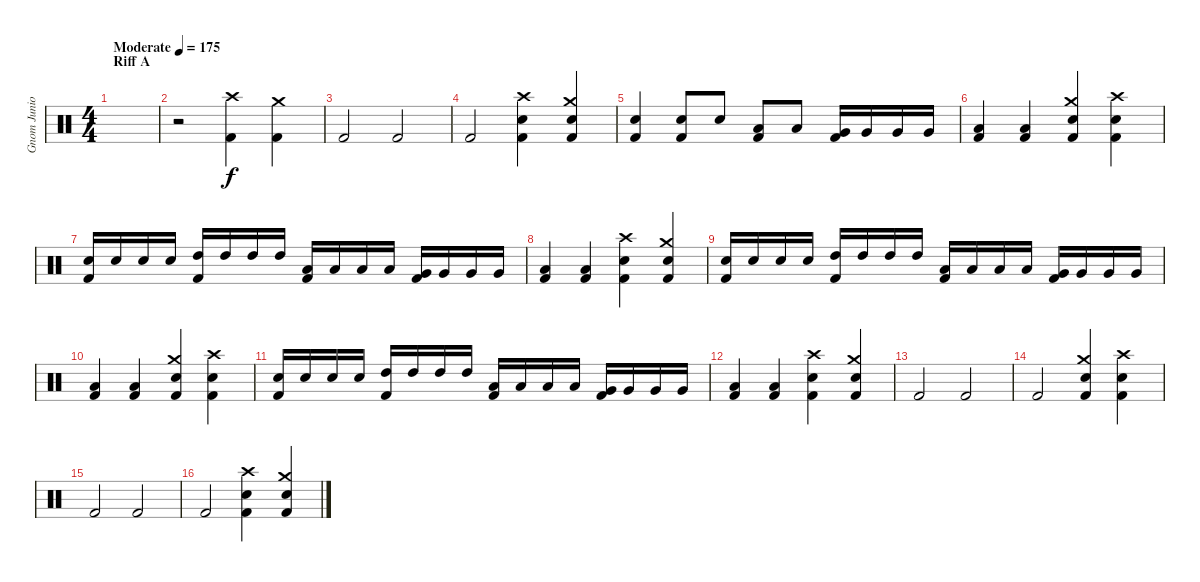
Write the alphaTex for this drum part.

\track ("Gnom Junior" "Gnom Junio") {instrument percussion}
\staff {score}
\articulation defaults
\ts (4 4)
\section ("" "Riff A")
\tempo (175 "Moderate")
\clef neutral
\ks c
|
r.2 ("Crash high (hit)" "Kick (hit) 2").4 ("Crash medium (hit)" "Kick (hit) 2").4 |
"Kick (hit) 2".2 "Kick (hit) 2".2 |
"Kick (hit) 2".2 ("Crash high (hit)" "Electric Snare (hit)" "Kick (hit) 2").4 ("Crash medium (hit)" "Electric Snare (hit)" "Kick (hit) 2").4 |
("Electric Snare (hit)" "Kick (hit) 2").4 ("Electric Snare (hit)" "Kick (hit) 2").8 "Electric Snare (hit)".8 ("Low Tom (hit)" "Kick (hit) 2").8 "Low Tom (hit)".8 ("Very Low Tom (hit)" "Kick (hit) 2").16 "Very Low Tom (hit)".16 "Very Low Tom (hit)".16 "Very Low Tom (hit)".16 |
("Low Tom (hit)" "Kick (hit) 2").4 ("Low Tom (hit)" "Kick (hit) 2").4 ("Crash medium (hit)" "Electric Snare (hit)" "Kick (hit) 2").4 ("Crash high (hit)" "Electric Snare (hit)" "Kick (hit) 2").4 |
("Electric Snare (hit)" "Kick (hit) 2").16 "Electric Snare (hit)".16 "Electric Snare (hit)".16 "Electric Snare (hit)".16 ("High Tom (hit)" "Kick (hit) 2").16 "High Tom (hit)".16 "High Tom (hit)".16 "High Tom (hit)".16 ("Low Tom (hit)" "Kick (hit) 2").16 "Low Tom (hit)".16 "Low Tom (hit)".16 "Low Tom (hit)".16 ("Very Low Tom (hit)" "Kick (hit) 2").16 "Very Low Tom (hit)".16 "Very Low Tom (hit)".16 "Very Low Tom (hit)".16 |
("Low Tom (hit)" "Kick (hit) 2").4 ("Low Tom (hit)" "Kick (hit) 2").4 ("Crash high (hit)" "Electric Snare (hit)" "Kick (hit) 2").4 ("Crash medium (hit)" "Electric Snare (hit)" "Kick (hit) 2").4 |
("Electric Snare (hit)" "Kick (hit) 2").16 "Electric Snare (hit)".16 "Electric Snare (hit)".16 "Electric Snare (hit)".16 ("High Tom (hit)" "Kick (hit) 2").16 "High Tom (hit)".16 "High Tom (hit)".16 "High Tom (hit)".16 ("Low Tom (hit)" "Kick (hit) 2").16 "Low Tom (hit)".16 "Low Tom (hit)".16 "Low Tom (hit)".16 ("Very Low Tom (hit)" "Kick (hit) 2").16 "Very Low Tom (hit)".16 "Very Low Tom (hit)".16 "Very Low Tom (hit)".16 |
("Low Tom (hit)" "Kick (hit) 2").4 ("Low Tom (hit)" "Kick (hit) 2").4 ("Crash medium (hit)" "Electric Snare (hit)" "Kick (hit) 2").4 ("Crash high (hit)" "Electric Snare (hit)" "Kick (hit) 2").4 |
("Electric Snare (hit)" "Kick (hit) 2").16 "Electric Snare (hit)".16 "Electric Snare (hit)".16 "Electric Snare (hit)".16 ("High Tom (hit)" "Kick (hit) 2").16 "High Tom (hit)".16 "High Tom (hit)".16 "High Tom (hit)".16 ("Low Tom (hit)" "Kick (hit) 2").16 "Low Tom (hit)".16 "Low Tom (hit)".16 "Low Tom (hit)".16 ("Very Low Tom (hit)" "Kick (hit) 2").16 "Very Low Tom (hit)".16 "Very Low Tom (hit)".16 "Very Low Tom (hit)".16 |
("Low Tom (hit)" "Kick (hit) 2").4 ("Low Tom (hit)" "Kick (hit) 2").4 ("Crash high (hit)" "Electric Snare (hit)" "Kick (hit) 2").4 ("Crash medium (hit)" "Electric Snare (hit)" "Kick (hit) 2").4 |
"Kick (hit) 2".2 "Kick (hit) 2".2 |
"Kick (hit) 2".2 ("Crash medium (hit)" "Electric Snare (hit)" "Kick (hit) 2").4 ("Crash high (hit)" "Electric Snare (hit)" "Kick (hit) 2").4 |
"Kick (hit) 2".2 "Kick (hit) 2".2 |
"Kick (hit) 2".2 ("Crash high (hit)" "Electric Snare (hit)" "Kick (hit) 2").4 ("Crash medium (hit)" "Electric Snare (hit)" "Kick (hit) 2").4
